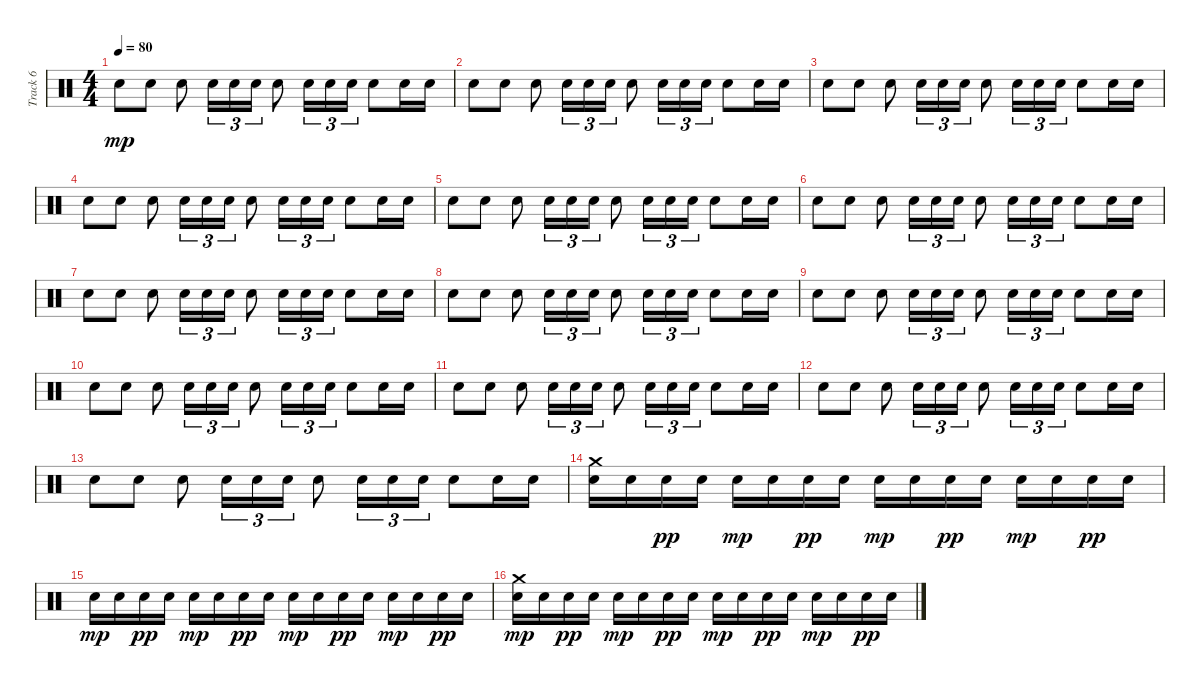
\track ("Track 6" "Track 6") {instrument percussion}
\staff {score}
\articulation defaults
\ts (4 4)
\tempo 80
\clef neutral
\ks c "Electric Snare (hit)".8{dy mp} "Electric Snare (hit)".8 "Electric Snare (hit)".8 "Electric Snare (hit)".16{tu (3 2)} "Electric Snare (hit)".16{tu (3 2)} "Electric Snare (hit)".16{tu (3 2)} "Electric Snare (hit)".8 "Electric Snare (hit)".16{tu (3 2)} "Electric Snare (hit)".16{tu (3 2)} "Electric Snare (hit)".16{tu (3 2)} "Electric Snare (hit)".8 "Electric Snare (hit)".16 "Electric Snare (hit)".16
|
"Electric Snare (hit)".8 "Electric Snare (hit)".8 "Electric Snare (hit)".8 "Electric Snare (hit)".16{tu (3 2)} "Electric Snare (hit)".16{tu (3 2)} "Electric Snare (hit)".16{tu (3 2)} "Electric Snare (hit)".8 "Electric Snare (hit)".16{tu (3 2)} "Electric Snare (hit)".16{tu (3 2)} "Electric Snare (hit)".16{tu (3 2)} "Electric Snare (hit)".8 "Electric Snare (hit)".16 "Electric Snare (hit)".16 |
"Electric Snare (hit)".8 "Electric Snare (hit)".8 "Electric Snare (hit)".8 "Electric Snare (hit)".16{tu (3 2)} "Electric Snare (hit)".16{tu (3 2)} "Electric Snare (hit)".16{tu (3 2)} "Electric Snare (hit)".8 "Electric Snare (hit)".16{tu (3 2)} "Electric Snare (hit)".16{tu (3 2)} "Electric Snare (hit)".16{tu (3 2)} "Electric Snare (hit)".8 "Electric Snare (hit)".16 "Electric Snare (hit)".16 |
"Electric Snare (hit)".8 "Electric Snare (hit)".8 "Electric Snare (hit)".8 "Electric Snare (hit)".16{tu (3 2)} "Electric Snare (hit)".16{tu (3 2)} "Electric Snare (hit)".16{tu (3 2)} "Electric Snare (hit)".8 "Electric Snare (hit)".16{tu (3 2)} "Electric Snare (hit)".16{tu (3 2)} "Electric Snare (hit)".16{tu (3 2)} "Electric Snare (hit)".8 "Electric Snare (hit)".16 "Electric Snare (hit)".16 |
"Electric Snare (hit)".8 "Electric Snare (hit)".8 "Electric Snare (hit)".8 "Electric Snare (hit)".16{tu (3 2)} "Electric Snare (hit)".16{tu (3 2)} "Electric Snare (hit)".16{tu (3 2)} "Electric Snare (hit)".8 "Electric Snare (hit)".16{tu (3 2)} "Electric Snare (hit)".16{tu (3 2)} "Electric Snare (hit)".16{tu (3 2)} "Electric Snare (hit)".8 "Electric Snare (hit)".16 "Electric Snare (hit)".16 |
"Electric Snare (hit)".8 "Electric Snare (hit)".8 "Electric Snare (hit)".8 "Electric Snare (hit)".16{tu (3 2)} "Electric Snare (hit)".16{tu (3 2)} "Electric Snare (hit)".16{tu (3 2)} "Electric Snare (hit)".8 "Electric Snare (hit)".16{tu (3 2)} "Electric Snare (hit)".16{tu (3 2)} "Electric Snare (hit)".16{tu (3 2)} "Electric Snare (hit)".8 "Electric Snare (hit)".16 "Electric Snare (hit)".16 |
"Electric Snare (hit)".8 "Electric Snare (hit)".8 "Electric Snare (hit)".8 "Electric Snare (hit)".16{tu (3 2)} "Electric Snare (hit)".16{tu (3 2)} "Electric Snare (hit)".16{tu (3 2)} "Electric Snare (hit)".8 "Electric Snare (hit)".16{tu (3 2)} "Electric Snare (hit)".16{tu (3 2)} "Electric Snare (hit)".16{tu (3 2)} "Electric Snare (hit)".8 "Electric Snare (hit)".16 "Electric Snare (hit)".16 |
"Electric Snare (hit)".8 "Electric Snare (hit)".8 "Electric Snare (hit)".8 "Electric Snare (hit)".16{tu (3 2)} "Electric Snare (hit)".16{tu (3 2)} "Electric Snare (hit)".16{tu (3 2)} "Electric Snare (hit)".8 "Electric Snare (hit)".16{tu (3 2)} "Electric Snare (hit)".16{tu (3 2)} "Electric Snare (hit)".16{tu (3 2)} "Electric Snare (hit)".8 "Electric Snare (hit)".16 "Electric Snare (hit)".16 |
"Electric Snare (hit)".8 "Electric Snare (hit)".8 "Electric Snare (hit)".8 "Electric Snare (hit)".16{tu (3 2)} "Electric Snare (hit)".16{tu (3 2)} "Electric Snare (hit)".16{tu (3 2)} "Electric Snare (hit)".8 "Electric Snare (hit)".16{tu (3 2)} "Electric Snare (hit)".16{tu (3 2)} "Electric Snare (hit)".16{tu (3 2)} "Electric Snare (hit)".8 "Electric Snare (hit)".16 "Electric Snare (hit)".16 |
"Electric Snare (hit)".8 "Electric Snare (hit)".8 "Electric Snare (hit)".8 "Electric Snare (hit)".16{tu (3 2)} "Electric Snare (hit)".16{tu (3 2)} "Electric Snare (hit)".16{tu (3 2)} "Electric Snare (hit)".8 "Electric Snare (hit)".16{tu (3 2)} "Electric Snare (hit)".16{tu (3 2)} "Electric Snare (hit)".16{tu (3 2)} "Electric Snare (hit)".8 "Electric Snare (hit)".16 "Electric Snare (hit)".16 |
"Electric Snare (hit)".8 "Electric Snare (hit)".8 "Electric Snare (hit)".8 "Electric Snare (hit)".16{tu (3 2)} "Electric Snare (hit)".16{tu (3 2)} "Electric Snare (hit)".16{tu (3 2)} "Electric Snare (hit)".8 "Electric Snare (hit)".16{tu (3 2)} "Electric Snare (hit)".16{tu (3 2)} "Electric Snare (hit)".16{tu (3 2)} "Electric Snare (hit)".8 "Electric Snare (hit)".16 "Electric Snare (hit)".16 |
"Electric Snare (hit)".8 "Electric Snare (hit)".8 "Electric Snare (hit)".8 "Electric Snare (hit)".16{tu (3 2)} "Electric Snare (hit)".16{tu (3 2)} "Electric Snare (hit)".16{tu (3 2)} "Electric Snare (hit)".8 "Electric Snare (hit)".16{tu (3 2)} "Electric Snare (hit)".16{tu (3 2)} "Electric Snare (hit)".16{tu (3 2)} "Electric Snare (hit)".8 "Electric Snare (hit)".16 "Electric Snare (hit)".16 |
"Electric Snare (hit)".8 "Electric Snare (hit)".8 "Electric Snare (hit)".8 "Electric Snare (hit)".16{tu (3 2)} "Electric Snare (hit)".16{tu (3 2)} "Electric Snare (hit)".16{tu (3 2)} "Electric Snare (hit)".8 "Electric Snare (hit)".16{tu (3 2)} "Electric Snare (hit)".16{tu (3 2)} "Electric Snare (hit)".16{tu (3 2)} "Electric Snare (hit)".8 "Electric Snare (hit)".16 "Electric Snare (hit)".16 |
("Electric Snare (hit)" "Crash medium (hit)").16 "Electric Snare (hit)".16 "Electric Snare (hit)".16{dy pp} "Electric Snare (hit)".16 "Electric Snare (hit)".16{dy mp} "Electric Snare (hit)".16 "Electric Snare (hit)".16{dy pp} "Electric Snare (hit)".16 "Electric Snare (hit)".16{dy mp} "Electric Snare (hit)".16 "Electric Snare (hit)".16{dy pp} "Electric Snare (hit)".16 "Electric Snare (hit)".16{dy mp} "Electric Snare (hit)".16 "Electric Snare (hit)".16{dy pp} "Electric Snare (hit)".16 |
"Electric Snare (hit)".16{dy mp} "Electric Snare (hit)".16 "Electric Snare (hit)".16{dy pp} "Electric Snare (hit)".16 "Electric Snare (hit)".16{dy mp} "Electric Snare (hit)".16 "Electric Snare (hit)".16{dy pp} "Electric Snare (hit)".16 "Electric Snare (hit)".16{dy mp} "Electric Snare (hit)".16 "Electric Snare (hit)".16{dy pp} "Electric Snare (hit)".16 "Electric Snare (hit)".16{dy mp} "Electric Snare (hit)".16 "Electric Snare (hit)".16{dy pp} "Electric Snare (hit)".16 |
("Electric Snare (hit)" "Crash medium (hit)").16{dy mp} "Electric Snare (hit)".16 "Electric Snare (hit)".16{dy pp} "Electric Snare (hit)".16 "Electric Snare (hit)".16{dy mp} "Electric Snare (hit)".16 "Electric Snare (hit)".16{dy pp} "Electric Snare (hit)".16 "Electric Snare (hit)".16{dy mp} "Electric Snare (hit)".16 "Electric Snare (hit)".16{dy pp} "Electric Snare (hit)".16 "Electric Snare (hit)".16{dy mp} "Electric Snare (hit)".16 "Electric Snare (hit)".16{dy pp} "Electric Snare (hit)".16
